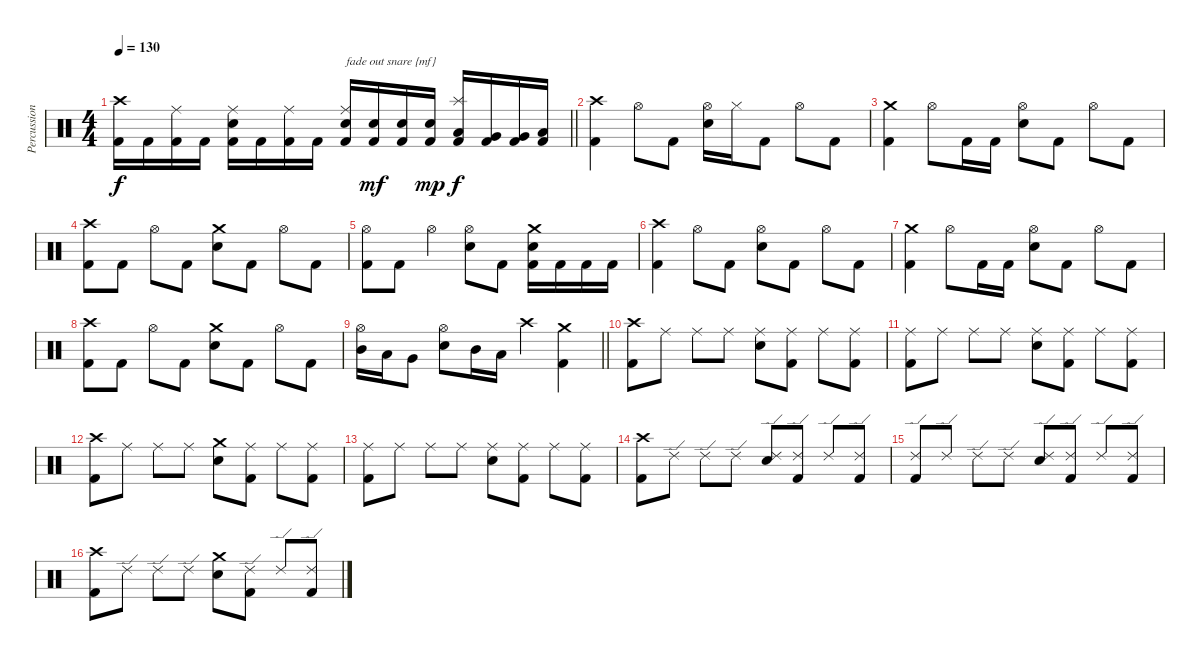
\track ("Percussion" "Percussion") {instrument percussion}
\staff {score}
\articulation defaults
\ts (4 4)
\tempo 130
\clef neutral
\barLineRight lightlight
\ks c
("Crash high (hit)" "Kick (hit) 2").16{dy f} "Kick (hit) 2".16 ("Ride (middle)" "Kick (hit) 2").16 "Kick (hit) 2".16 ("Ride (middle)" "Electric Snare (hit)" "Kick (hit) 2").16 "Kick (hit) 2".16 ("Ride (middle)" "Kick (hit) 2").16 "Kick (hit) 2".16 ("Ride (middle)" "Electric Snare (hit)" "Kick (hit) 2").16{txt "fade out snare {mf}"} ("Electric Snare (hit)" "Kick (hit) 2").16{dy mf} ("Electric Snare (hit)" "Kick (hit) 2").16 ("Electric Snare (hit)" "Kick (hit) 2").16{dy mp} ("Splash (hit)" "Low Tom (hit)" "Kick (hit) 2").16{dy f} ("Very Low Tom (hit)" "Kick (hit) 2").16 ("Very Low Tom (hit)" "Kick (hit) 2").16 ("Low Floor Tom (hit)" "Kick (hit) 2").16 |
("Crash high (hit)" "Kick (hit) 2").4 "Hi-Hat (open)".8 "Kick (hit) 2".8 ("Hi-Hat (open)" "Electric Snare (hit)").16 "Hi-Hat (closed)".16 "Kick (hit) 2".8 "Hi-Hat (open)".8 "Kick (hit) 2".8 |
("Crash medium (hit)" "Kick (hit) 2").4 "Hi-Hat (open)".8 "Kick (hit) 2".16 "Kick (hit) 2".16 ("Hi-Hat (open)" "Electric Snare (hit)").8 "Kick (hit) 2".8 "Hi-Hat (open)".8 "Kick (hit) 2".8 |
("Crash high (hit)" "Kick (hit) 2").8 "Kick (hit) 2".8 "Hi-Hat (open)".8 "Kick (hit) 2".8 ("Crash medium (hit)" "Electric Snare (hit)").8 "Kick (hit) 2".8 "Hi-Hat (open)".8 "Kick (hit) 2".8 |
("Hi-Hat (open)" "Kick (hit) 2").8 "Kick (hit) 2".8 "Hi-Hat (open)".4 ("Hi-Hat (open)" "Electric Snare (hit)").8 "Kick (hit) 2".8 ("Crash medium (hit)" "Electric Snare (hit)" "Kick (hit) 2").16 "Kick (hit) 2".16 "Kick (hit) 2".16 "Kick (hit) 2".16 |
("Crash high (hit)" "Kick (hit) 2").4 "Hi-Hat (open)".8 "Kick (hit) 2".8 ("Hi-Hat (open)" "Electric Snare (hit)").8 "Kick (hit) 2".8 "Hi-Hat (open)".8 "Kick (hit) 2".8 |
("Crash medium (hit)" "Kick (hit) 2").4 "Hi-Hat (open)".8 "Kick (hit) 2".16 "Kick (hit) 2".16 ("Hi-Hat (open)" "Electric Snare (hit)").8 "Kick (hit) 2".8 "Hi-Hat (open)".8 "Kick (hit) 2".8 |
("Crash high (hit)" "Kick (hit) 2").8 "Kick (hit) 2".8 "Hi-Hat (open)".8 "Kick (hit) 2".8 ("Crash medium (hit)" "Electric Snare (hit)").8 "Kick (hit) 2".8 "Hi-Hat (open)".8 "Kick (hit) 2".8 |
\barLineRight lightlight
("Hi-Hat (open)" "Mid Tom (hit)").16 "Low Tom (hit)".16 "Very Low Tom (hit)".8 ("Hi-Hat (open)" "Electric Snare (hit)").8 "Mid Tom (hit)".16 "Low Tom (hit)".16 "Crash high (hit)".4 ("Crash medium (hit)" "Kick (hit) 2").4 |
("Crash high (hit)" "Kick (hit) 2").8 "Ride (middle)".8 "Ride (middle)".8 "Ride (middle)".8 ("Ride (middle)" "Electric Snare (hit)").8 ("Ride (middle)" "Kick (hit) 2").8 "Ride (middle)".8 ("Ride (middle)" "Kick (hit) 2").8 |
("Ride (middle)" "Kick (hit) 2").8 "Ride (middle)".8 "Ride (middle)".8 "Ride (middle)".8 ("Ride (middle)" "Electric Snare (hit)").8 ("Ride (middle)" "Kick (hit) 2").8 "Ride (middle)".8 ("Ride (middle)" "Kick (hit) 2").8 |
("Crash high (hit)" "Kick (hit) 2").8 "Ride (middle)".8 "Ride (middle)".8 "Ride (middle)".8 ("Crash medium (hit)" "Electric Snare (hit)").8 ("Ride (middle)" "Kick (hit) 2").8 "Ride (middle)".8 ("Ride (middle)" "Kick (hit) 2").8 |
("Ride (middle)" "Kick (hit) 2").8 "Ride (middle)".8 "Ride (middle)".8 "Ride (middle)".8 ("Ride (middle)" "Electric Snare (hit)").8 ("Ride (middle)" "Kick (hit) 2").8 "Ride (middle)".8 ("Ride (middle)" "Kick (hit) 2").8 |
("Crash high (hit)" "Kick (hit) 2").8 "Ride (edge) 2".8 "Ride (edge) 2".8 "Ride (edge) 2".8 ("Ride (edge) 2" "Electric Snare (hit)").8 ("Ride (edge) 2" "Kick (hit) 2").8 "Ride (edge) 2".8 ("Ride (edge) 2" "Kick (hit) 2").8 |
("Ride (edge) 2" "Kick (hit) 2").8 "Ride (edge) 2".8 "Ride (edge) 2".8 "Ride (edge) 2".8 ("Ride (edge) 2" "Electric Snare (hit)").8 ("Ride (edge) 2" "Kick (hit) 2").8 "Ride (edge) 2".8 ("Ride (edge) 2" "Kick (hit) 2").8 |
("Crash high (hit)" "Kick (hit) 2").8 "Ride (edge) 2".8 "Ride (edge) 2".8 "Ride (edge) 2".8 ("Crash medium (hit)" "Electric Snare (hit)").8 ("Ride (edge) 2" "Kick (hit) 2").8 "Ride (edge) 2".8 ("Ride (edge) 2" "Kick (hit) 2").8
